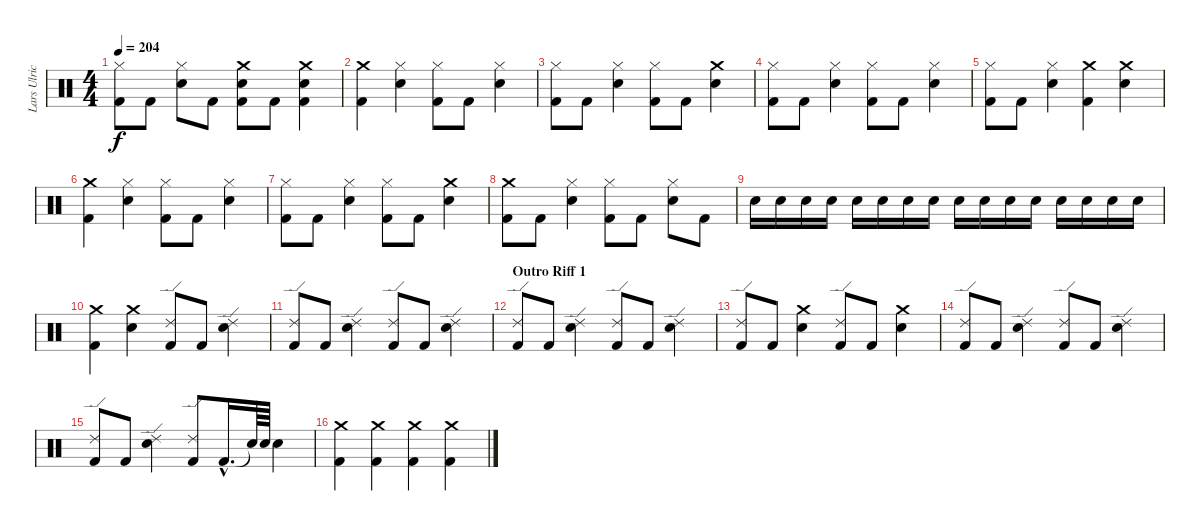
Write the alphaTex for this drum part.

\track ("Lars Ulrich (Drums)" "Lars Ulric") {instrument percussion}
\staff {score}
\articulation defaults
\ts (4 4)
\tempo 204
\clef neutral
\ks c
("Hi-Hat (closed)" "Kick (hit) 2").8{dy f} "Kick (hit) 2".8 ("Snare (hit) 2" "Hi-Hat (closed)").8 "Kick (hit) 2".8 ("Snare (hit) 2" "Crash medium (hit)" "Kick (hit) 2").8 "Kick (hit) 2".8 ("Kick (hit) 2" "Crash medium (hit)" "Snare (hit) 2").4 |
("Kick (hit) 2" "Crash medium (hit)").4 ("Hi-Hat (closed)" "Snare (hit) 2").4 ("Hi-Hat (closed)" "Kick (hit) 2").8 "Kick (hit) 2".8 ("Snare (hit) 2" "Hi-Hat (closed)").4 |
("Hi-Hat (closed)" "Kick (hit) 2").8 "Kick (hit) 2".8 ("Snare (hit) 2" "Hi-Hat (closed)").4 ("Hi-Hat (closed)" "Kick (hit) 2").8 "Kick (hit) 2".8 ("Crash medium (hit)" "Snare (hit) 2").4 |
("Hi-Hat (closed)" "Kick (hit) 2").8 "Kick (hit) 2".8 ("Snare (hit) 2" "Hi-Hat (closed)").4 ("Hi-Hat (closed)" "Kick (hit) 2").8 "Kick (hit) 2".8 ("Snare (hit) 2" "Hi-Hat (closed)").4 |
("Hi-Hat (closed)" "Kick (hit) 2").8 "Kick (hit) 2".8 ("Snare (hit) 2" "Hi-Hat (closed)").4 ("Crash medium (hit)" "Kick (hit) 2").4 ("Crash medium (hit)" "Snare (hit) 2").4 |
("Kick (hit) 2" "Crash medium (hit)").4 ("Hi-Hat (closed)" "Snare (hit) 2").4 ("Hi-Hat (closed)" "Kick (hit) 2").8 "Kick (hit) 2".8 ("Snare (hit) 2" "Hi-Hat (closed)").4 |
("Hi-Hat (closed)" "Kick (hit) 2").8 "Kick (hit) 2".8 ("Snare (hit) 2" "Hi-Hat (closed)").4 ("Hi-Hat (closed)" "Kick (hit) 2").8 "Kick (hit) 2".8 ("Crash medium (hit)" "Snare (hit) 2").4 |
("Crash medium (hit)" "Kick (hit) 2").8 "Kick (hit) 2".8 ("Snare (hit) 2" "Hi-Hat (closed)").4 ("Hi-Hat (closed)" "Kick (hit) 2").8 "Kick (hit) 2".8 ("Snare (hit) 2" "Hi-Hat (closed)").8 "Kick (hit) 2".8 |
"Snare (hit) 2".16 "Snare (hit) 2".16 "Snare (hit) 2".16 "Snare (hit) 2".16 "Snare (hit) 2".16 "Snare (hit) 2".16 "Snare (hit) 2".16 "Snare (hit) 2".16 "Snare (hit) 2".16 "Snare (hit) 2".16 "Snare (hit) 2".16 "Snare (hit) 2".16 "Snare (hit) 2".16 "Snare (hit) 2".16 "Snare (hit) 2".16 "Snare (hit) 2".16 |
("Kick (hit) 2" "Crash medium (hit)").4 ("Snare (hit) 2" "Crash medium (hit)").4 ("Kick (hit) 2" "Ride (edge) 2").8 "Kick (hit) 2".8 ("Snare (hit) 2" "Ride (edge) 2").4 |
("Ride (edge) 2" "Kick (hit) 2").8 "Kick (hit) 2".8 ("Snare (hit) 2" "Ride (edge) 2").4 ("Ride (edge) 2" "Kick (hit) 2").8 "Kick (hit) 2".8 ("Snare (hit) 2" "Ride (edge) 2").4 |
\section ("" "Outro Riff 1")
("Ride (edge) 2" "Kick (hit) 2").8 "Kick (hit) 2".8 ("Snare (hit) 2" "Ride (edge) 2").4 ("Ride (edge) 2" "Kick (hit) 2").8 "Kick (hit) 2".8 ("Snare (hit) 2" "Ride (edge) 2").4 |
("Ride (edge) 2" "Kick (hit) 2").8 "Kick (hit) 2".8 ("Snare (hit) 2" "Crash medium (hit)").4 ("Ride (edge) 2" "Kick (hit) 2").8 "Kick (hit) 2".8 ("Snare (hit) 2" "Crash medium (hit)").4 |
("Ride (edge) 2" "Kick (hit) 2").8 "Kick (hit) 2".8 ("Snare (hit) 2" "Ride (edge) 2").4 ("Ride (edge) 2" "Kick (hit) 2").8 "Kick (hit) 2".8 ("Snare (hit) 2" "Ride (edge) 2").4 |
("Ride (edge) 2" "Kick (hit) 2").8 "Kick (hit) 2".8 ("Snare (hit) 2" "Ride (edge) 2").4 ("Ride (edge) 2" "Kick (hit) 2").8 "Kick (hit) 2"{hac}.16{d} "Snare (hit)"{t}.64 "Snare (hit) 2".64 "Snare (hit) 2".4 |
("Crash medium (hit)" "Kick (hit) 2").4 ("Crash medium (hit)" "Kick (hit) 2").4 ("Crash medium (hit)" "Kick (hit) 2").4 ("Crash medium (hit)" "Kick (hit) 2").4
